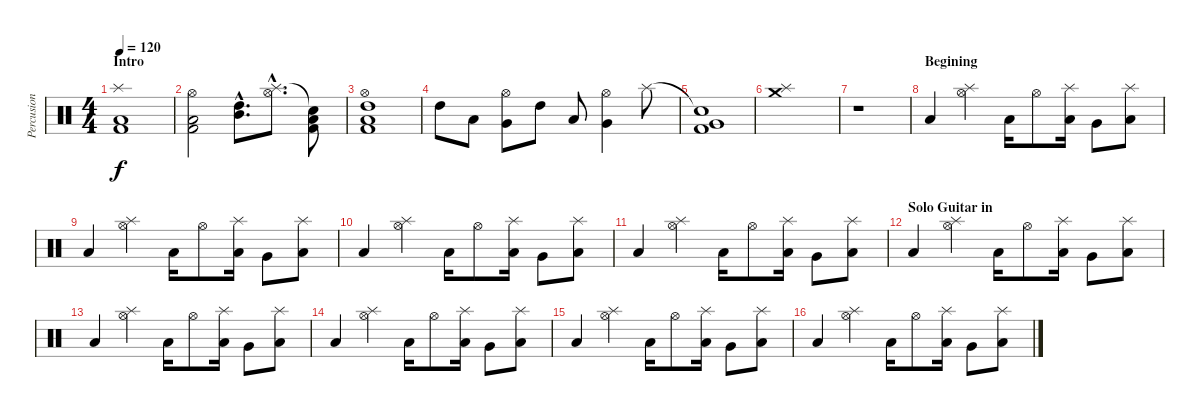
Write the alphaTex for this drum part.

\track ("Percusion" "Percusion") {instrument percussion}
\staff {score}
\articulation defaults
\ts (4 4)
\section ("" "Intro")
\tempo 120
\clef neutral
\ks c
("Splash (hit)" "Low Tom (hit)" "Kick (hit) 2").1{dy f} |
("Hi-Hat (open)" "Low Tom (hit)" "Kick (hit) 2").2 ("Mid Tom (hit)"{hac} "High Tom (hit)"{hac}).8{d} ("Splash (hit)"{hac} "Hi-Hat (open)"{hac}).8{d} ("Snare (hit)"{t} "Low Tom (hit)" "Kick (hit) 2").8 |
("High Tom (hit)" "Low Tom (hit)" "Hi-Hat (open)" "Kick (hit) 2").1 |
"High Tom (hit)".8 "Low Tom (hit)".8 ("Very Low Tom (hit)" "Hi-Hat (open)").8 "High Tom (hit)".8 "Low Tom (hit)".8 ("Very Low Tom (hit)" "Hi-Hat (open)").4 "Splash (hit)".8 |
("Snare (hit)"{t} "Very Low Tom (hit)" "Kick (hit) 2").1 |
("Splash (hit)" "Crash medium (hit)").1 |
r.1 |
\section ("" "Begining")
"Low Tom (hit)".4 ("Hi-Hat (open)" "Splash (hit)").4 "Low Tom (hit)".16 "Hi-Hat (open)".8 ("Low Tom (hit)" "Splash (hit)").16 "Very Low Tom (hit)".8 ("Low Floor Tom (hit)" "Splash (hit)").8 |
"Low Tom (hit)".4 ("Hi-Hat (open)" "Splash (hit)").4 "Low Tom (hit)".16 "Hi-Hat (open)".8 ("Low Tom (hit)" "Splash (hit)").16 "Very Low Tom (hit)".8 ("Low Floor Tom (hit)" "Splash (hit)").8 |
"Low Tom (hit)".4 ("Hi-Hat (open)" "Splash (hit)").4 "Low Tom (hit)".16 "Hi-Hat (open)".8 ("Low Tom (hit)" "Splash (hit)").16 "Very Low Tom (hit)".8 ("Low Floor Tom (hit)" "Splash (hit)").8 |
"Low Tom (hit)".4 ("Hi-Hat (open)" "Splash (hit)").4 "Low Tom (hit)".16 "Hi-Hat (open)".8 ("Low Tom (hit)" "Splash (hit)").16 "Very Low Tom (hit)".8 ("Low Floor Tom (hit)" "Splash (hit)").8 |
\section ("" "Solo Guitar in")
"Low Tom (hit)".4 ("Hi-Hat (open)" "Splash (hit)").4 "Low Tom (hit)".16 "Hi-Hat (open)".8 ("Low Tom (hit)" "Splash (hit)").16 "Very Low Tom (hit)".8 ("Low Floor Tom (hit)" "Splash (hit)").8 |
"Low Tom (hit)".4 ("Hi-Hat (open)" "Splash (hit)").4 "Low Tom (hit)".16 "Hi-Hat (open)".8 ("Low Tom (hit)" "Splash (hit)").16 "Very Low Tom (hit)".8 ("Low Floor Tom (hit)" "Splash (hit)").8 |
"Low Tom (hit)".4 ("Hi-Hat (open)" "Splash (hit)").4 "Low Tom (hit)".16 "Hi-Hat (open)".8 ("Low Tom (hit)" "Splash (hit)").16 "Very Low Tom (hit)".8 ("Low Floor Tom (hit)" "Splash (hit)").8 |
"Low Tom (hit)".4 ("Hi-Hat (open)" "Splash (hit)").4 "Low Tom (hit)".16 "Hi-Hat (open)".8 ("Low Tom (hit)" "Splash (hit)").16 "Very Low Tom (hit)".8 ("Low Floor Tom (hit)" "Splash (hit)").8 |
"Low Tom (hit)".4 ("Hi-Hat (open)" "Splash (hit)").4 "Low Tom (hit)".16 "Hi-Hat (open)".8 ("Low Tom (hit)" "Splash (hit)").16 "Very Low Tom (hit)".8 ("Low Floor Tom (hit)" "Splash (hit)").8
